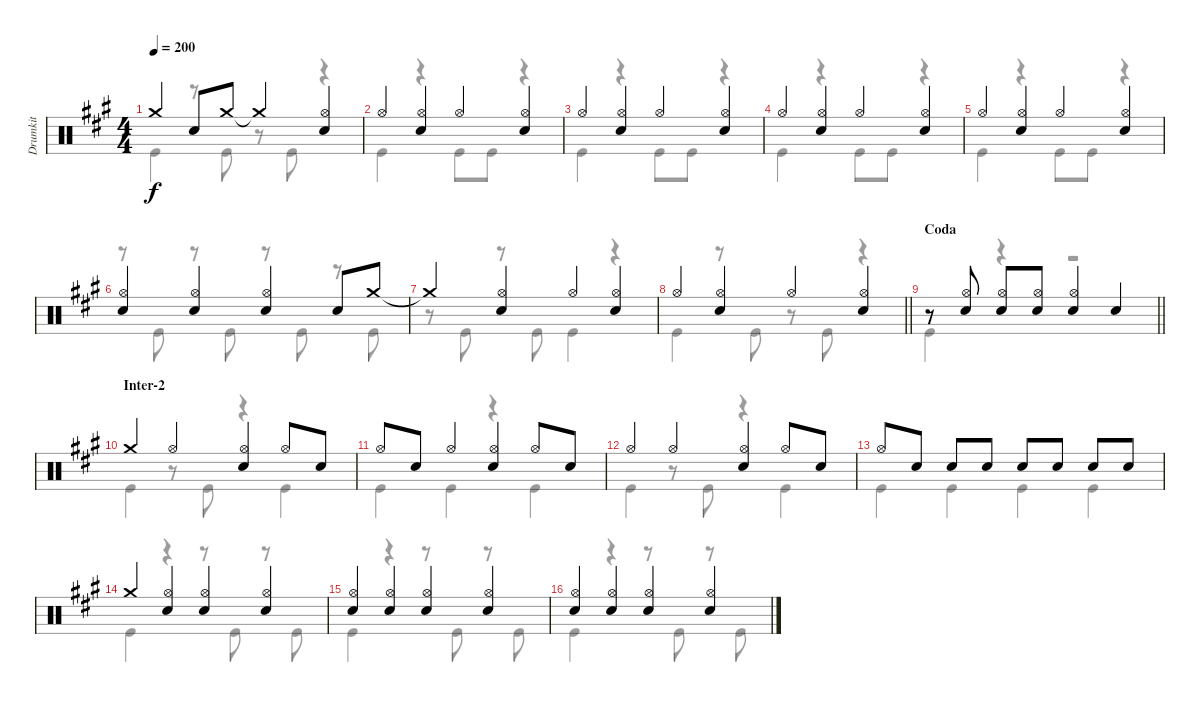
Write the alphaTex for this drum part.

\track ("Drumkit" "Drumkit") {instrument percussion}
\staff {score}
\articulation defaults
\voice
\ts (4 4)
\tempo 200
\clef neutral
\ks a "Crash medium (hit)".4{dy f} "Snare (hit) 2".8 "Crash medium (hit)".8 "Crash medium (hit)"{t}.4
("Hi-Hat (open)" "Snare (hit) 2").4 |
"Hi-Hat (open)".4 ("Hi-Hat (open)" "Snare (hit) 2").4 "Hi-Hat (open)".4 ("Hi-Hat (open)" "Snare (hit) 2").4 |
"Hi-Hat (open)".4 ("Hi-Hat (open)" "Snare (hit) 2").4 "Hi-Hat (open)".4 ("Hi-Hat (open)" "Snare (hit) 2").4 |
"Hi-Hat (open)".4 ("Hi-Hat (open)" "Snare (hit) 2").4 "Hi-Hat (open)".4 ("Hi-Hat (open)" "Snare (hit) 2").4 |
"Hi-Hat (open)".4 ("Hi-Hat (open)" "Snare (hit) 2").4 "Hi-Hat (open)".4 ("Hi-Hat (open)" "Snare (hit) 2").4 |
("Hi-Hat (open)" "Snare (hit) 2").4 ("Hi-Hat (open)" "Snare (hit) 2").4 ("Hi-Hat (open)" "Snare (hit) 2").4 "Snare (hit) 2".8 "Crash medium (hit)".8 |
"Crash medium (hit)"{t}.4 ("Hi-Hat (open)" "Snare (hit) 2").4 "Hi-Hat (open)".4 ("Hi-Hat (open)" "Snare (hit) 2").4 |
\barLineRight lightlight "Hi-Hat (open)".4
("Hi-Hat (open)" "Snare (hit) 2").4 "Hi-Hat (open)".4 ("Hi-Hat (open)" "Snare (hit) 2").4 |
\section ("" "Coda")
\barLineRight lightlight
r.8 ("Hi-Hat (open)" "Snare (hit) 2").8 ("Hi-Hat (open)" "Snare (hit) 2").8 ("Hi-Hat (open)" "Snare (hit) 2").8 ("Hi-Hat (open)" "Snare (hit) 2").4 "Snare (hit) 2".4 |
\section ("" "Inter-2")
"Crash medium (hit)".4 "Hi-Hat (open)".4 ("Hi-Hat (open)" "Snare (hit) 2").4 "Hi-Hat (open)".8 "Snare (hit) 2".8 |
"Hi-Hat (open)".8 "Snare (hit) 2".8 "Hi-Hat (open)".4 ("Hi-Hat (open)" "Snare (hit) 2").4 "Hi-Hat (open)".8 "Snare (hit) 2".8 |
"Hi-Hat (open)".4 "Hi-Hat (open)".4 ("Hi-Hat (open)" "Snare (hit) 2").4 "Hi-Hat (open)".8 "Snare (hit) 2".8 |
"Hi-Hat (open)".8 "Snare (hit) 2".8 "Snare (hit) 2".8 "Snare (hit) 2".8 "Snare (hit) 2".8 "Snare (hit) 2".8 "Snare (hit) 2".8 "Snare (hit) 2".8 |
"Crash medium (hit)".4 ("Hi-Hat (open)" "Snare (hit) 2").4 ("Hi-Hat (open)" "Snare (hit) 2").4 ("Hi-Hat (open)" "Snare (hit) 2").4 |
("Snare (hit) 2" "Hi-Hat (open)").4 ("Snare (hit) 2" "Hi-Hat (open)").4 ("Snare (hit) 2" "Hi-Hat (open)").4 ("Snare (hit) 2" "Hi-Hat (open)").4 |
("Snare (hit) 2" "Hi-Hat (open)").4 ("Snare (hit) 2" "Hi-Hat (open)").4 ("Snare (hit) 2" "Hi-Hat (open)").4 ("Snare (hit) 2" "Hi-Hat (open)").4
\voice
\clef neutral
\ottava regular
\simile none
\ks a "Kick (hit)".4{dy f}
r.8 "Kick (hit)".8 r.8 "Kick (hit)".8 r.4 |
"Kick (hit)".4 r.4 "Kick (hit)".8 "Kick (hit)".8 r.4 |
"Kick (hit)".4 r.4 "Kick (hit)".8 "Kick (hit)".8 r.4 |
"Kick (hit)".4 r.4 "Kick (hit)".8 "Kick (hit)".8 r.4 |
"Kick (hit)".4 r.4 "Kick (hit)".8 "Kick (hit)".8 r.4 |
r.8 "Kick (hit)".8 r.8 "Kick (hit)".8 r.8 "Kick (hit)".8 r.8 "Kick (hit)".8 |
r.8 "Kick (hit)".8 r.8 "Kick (hit)".8 "Kick (hit)".4 r.4 |
\barLineRight lightlight "Kick (hit)".4
r.8 "Kick (hit)".8 r.8 "Kick (hit)".8 r.4 |
\barLineRight lightlight "Kick (hit)".4
r.4 r.2 |
"Kick (hit)".4 r.8 "Kick (hit)".8 r.4 "Kick (hit)".4 |
"Kick (hit)".4 "Kick (hit)".4 r.4 "Kick (hit)".4 |
"Kick (hit)".4 r.8 "Kick (hit)".8 r.4 "Kick (hit)".4 |
"Kick (hit)".4 "Kick (hit)".4 "Kick (hit)".4 "Kick (hit)".4 |
"Kick (hit)".4 r.4 r.8 "Kick (hit)".8 r.8 "Kick (hit)".8 |
"Kick (hit)".4 r.4 r.8 "Kick (hit)".8 r.8 "Kick (hit)".8 |
"Kick (hit)".4 r.4 r.8 "Kick (hit)".8 r.8 "Kick (hit)".8
